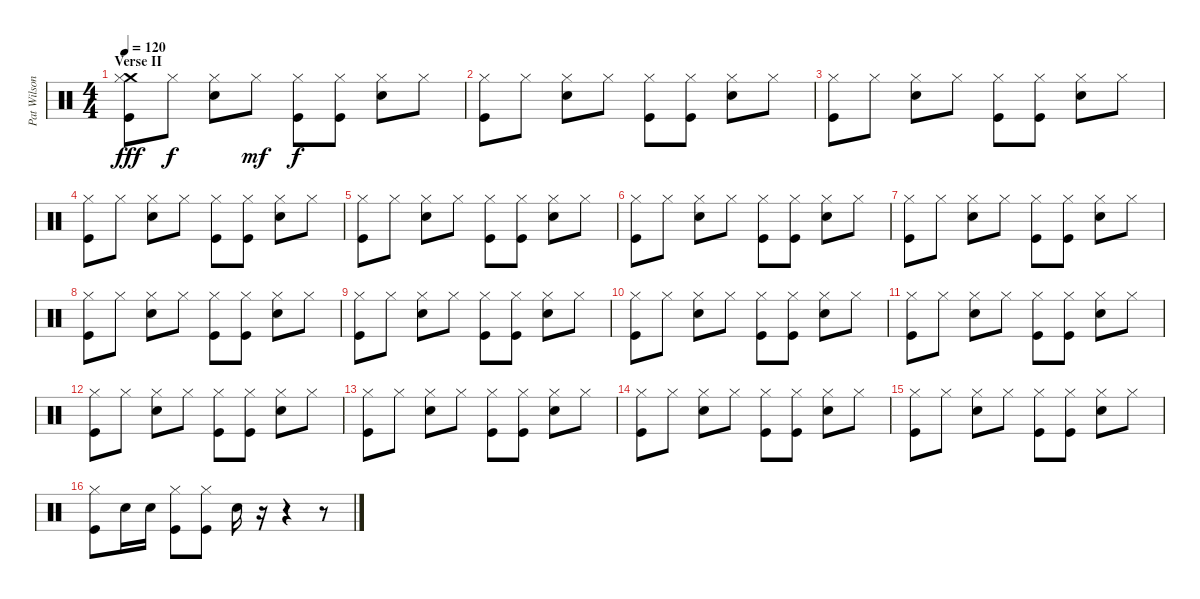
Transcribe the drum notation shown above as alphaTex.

\track ("Pat Wilson" "Pat Wilson") {instrument percussion}
\staff {score}
\articulation defaults
\ts (4 4)
\section ("" "Verse II")
\tempo 120
\clef neutral
\ks c
("Crash medium (hit)" "Hi-Hat (closed)" "Kick (hit)").8{dy fff volume 4} "Hi-Hat (closed)".8{dy f} ("Snare (hit) 2" "Hi-Hat (closed)").8 "Hi-Hat (closed)".8{dy mf} ("Hi-Hat (closed)" "Kick (hit)").8{dy f} ("Hi-Hat (closed)" "Kick (hit)").8 ("Snare (hit) 2" "Hi-Hat (closed)").8 "Hi-Hat (closed)".8 |
("Hi-Hat (closed)" "Kick (hit)").8 "Hi-Hat (closed)".8 ("Snare (hit) 2" "Hi-Hat (closed)").8 "Hi-Hat (closed)".8 ("Hi-Hat (closed)" "Kick (hit)").8 ("Hi-Hat (closed)" "Kick (hit)").8 ("Snare (hit) 2" "Hi-Hat (closed)").8 "Hi-Hat (closed)".8 |
("Hi-Hat (closed)" "Kick (hit)").8 "Hi-Hat (closed)".8 ("Snare (hit) 2" "Hi-Hat (closed)").8 "Hi-Hat (closed)".8 ("Hi-Hat (closed)" "Kick (hit)").8 ("Hi-Hat (closed)" "Kick (hit)").8 ("Snare (hit) 2" "Hi-Hat (closed)").8 "Hi-Hat (closed)".8 |
("Hi-Hat (closed)" "Kick (hit)").8 "Hi-Hat (closed)".8 ("Snare (hit) 2" "Hi-Hat (closed)").8 "Hi-Hat (closed)".8 ("Hi-Hat (closed)" "Kick (hit)").8 ("Hi-Hat (closed)" "Kick (hit)").8 ("Snare (hit) 2" "Hi-Hat (closed)").8 "Hi-Hat (closed)".8 |
("Hi-Hat (closed)" "Kick (hit)").8 "Hi-Hat (closed)".8 ("Snare (hit) 2" "Hi-Hat (closed)").8 "Hi-Hat (closed)".8 ("Hi-Hat (closed)" "Kick (hit)").8 ("Hi-Hat (closed)" "Kick (hit)").8 ("Snare (hit) 2" "Hi-Hat (closed)").8 "Hi-Hat (closed)".8 |
("Hi-Hat (closed)" "Kick (hit)").8 "Hi-Hat (closed)".8 ("Snare (hit) 2" "Hi-Hat (closed)").8 "Hi-Hat (closed)".8 ("Hi-Hat (closed)" "Kick (hit)").8 ("Hi-Hat (closed)" "Kick (hit)").8 ("Snare (hit) 2" "Hi-Hat (closed)").8 "Hi-Hat (closed)".8 |
("Hi-Hat (closed)" "Kick (hit)").8 "Hi-Hat (closed)".8 ("Snare (hit) 2" "Hi-Hat (closed)").8 "Hi-Hat (closed)".8 ("Hi-Hat (closed)" "Kick (hit)").8 ("Hi-Hat (closed)" "Kick (hit)").8 ("Snare (hit) 2" "Hi-Hat (closed)").8 "Hi-Hat (closed)".8 |
("Hi-Hat (closed)" "Kick (hit)").8 "Hi-Hat (closed)".8 ("Snare (hit) 2" "Hi-Hat (closed)").8 "Hi-Hat (closed)".8 ("Hi-Hat (closed)" "Kick (hit)").8 ("Hi-Hat (closed)" "Kick (hit)").8 ("Snare (hit) 2" "Hi-Hat (closed)").8 "Hi-Hat (closed)".8 |
("Hi-Hat (closed)" "Kick (hit)").8 "Hi-Hat (closed)".8 ("Snare (hit) 2" "Hi-Hat (closed)").8 "Hi-Hat (closed)".8 ("Hi-Hat (closed)" "Kick (hit)").8 ("Hi-Hat (closed)" "Kick (hit)").8 ("Snare (hit) 2" "Hi-Hat (closed)").8 "Hi-Hat (closed)".8 |
("Hi-Hat (closed)" "Kick (hit)").8 "Hi-Hat (closed)".8 ("Snare (hit) 2" "Hi-Hat (closed)").8 "Hi-Hat (closed)".8 ("Hi-Hat (closed)" "Kick (hit)").8 ("Hi-Hat (closed)" "Kick (hit)").8 ("Snare (hit) 2" "Hi-Hat (closed)").8 "Hi-Hat (closed)".8 |
("Hi-Hat (closed)" "Kick (hit)").8 "Hi-Hat (closed)".8 ("Snare (hit) 2" "Hi-Hat (closed)").8 "Hi-Hat (closed)".8 ("Hi-Hat (closed)" "Kick (hit)").8 ("Hi-Hat (closed)" "Kick (hit)").8 ("Snare (hit) 2" "Hi-Hat (closed)").8 "Hi-Hat (closed)".8 |
("Hi-Hat (closed)" "Kick (hit)").8 "Hi-Hat (closed)".8 ("Snare (hit) 2" "Hi-Hat (closed)").8 "Hi-Hat (closed)".8 ("Hi-Hat (closed)" "Kick (hit)").8 ("Hi-Hat (closed)" "Kick (hit)").8 ("Snare (hit) 2" "Hi-Hat (closed)").8 "Hi-Hat (closed)".8 |
("Hi-Hat (closed)" "Kick (hit)").8 "Hi-Hat (closed)".8 ("Snare (hit) 2" "Hi-Hat (closed)").8 "Hi-Hat (closed)".8 ("Hi-Hat (closed)" "Kick (hit)").8 ("Hi-Hat (closed)" "Kick (hit)").8 ("Snare (hit) 2" "Hi-Hat (closed)").8 "Hi-Hat (closed)".8 |
("Hi-Hat (closed)" "Kick (hit)").8 "Hi-Hat (closed)".8 ("Snare (hit) 2" "Hi-Hat (closed)").8 "Hi-Hat (closed)".8 ("Hi-Hat (closed)" "Kick (hit)").8 ("Hi-Hat (closed)" "Kick (hit)").8 ("Snare (hit) 2" "Hi-Hat (closed)").8 "Hi-Hat (closed)".8 |
("Hi-Hat (closed)" "Kick (hit)").8 "Hi-Hat (closed)".8 ("Snare (hit) 2" "Hi-Hat (closed)").8 "Hi-Hat (closed)".8 ("Hi-Hat (closed)" "Kick (hit)").8 ("Hi-Hat (closed)" "Kick (hit)").8 ("Snare (hit) 2" "Hi-Hat (closed)").8 "Hi-Hat (closed)".8 |
("Hi-Hat (closed)" "Kick (hit)").8 "Snare (hit) 2".16 "Snare (hit) 2".16 ("Hi-Hat (closed)" "Kick (hit)").8 ("Hi-Hat (closed)" "Kick (hit)").8 "Snare (hit) 2".16 r.16 r.4 r.8
